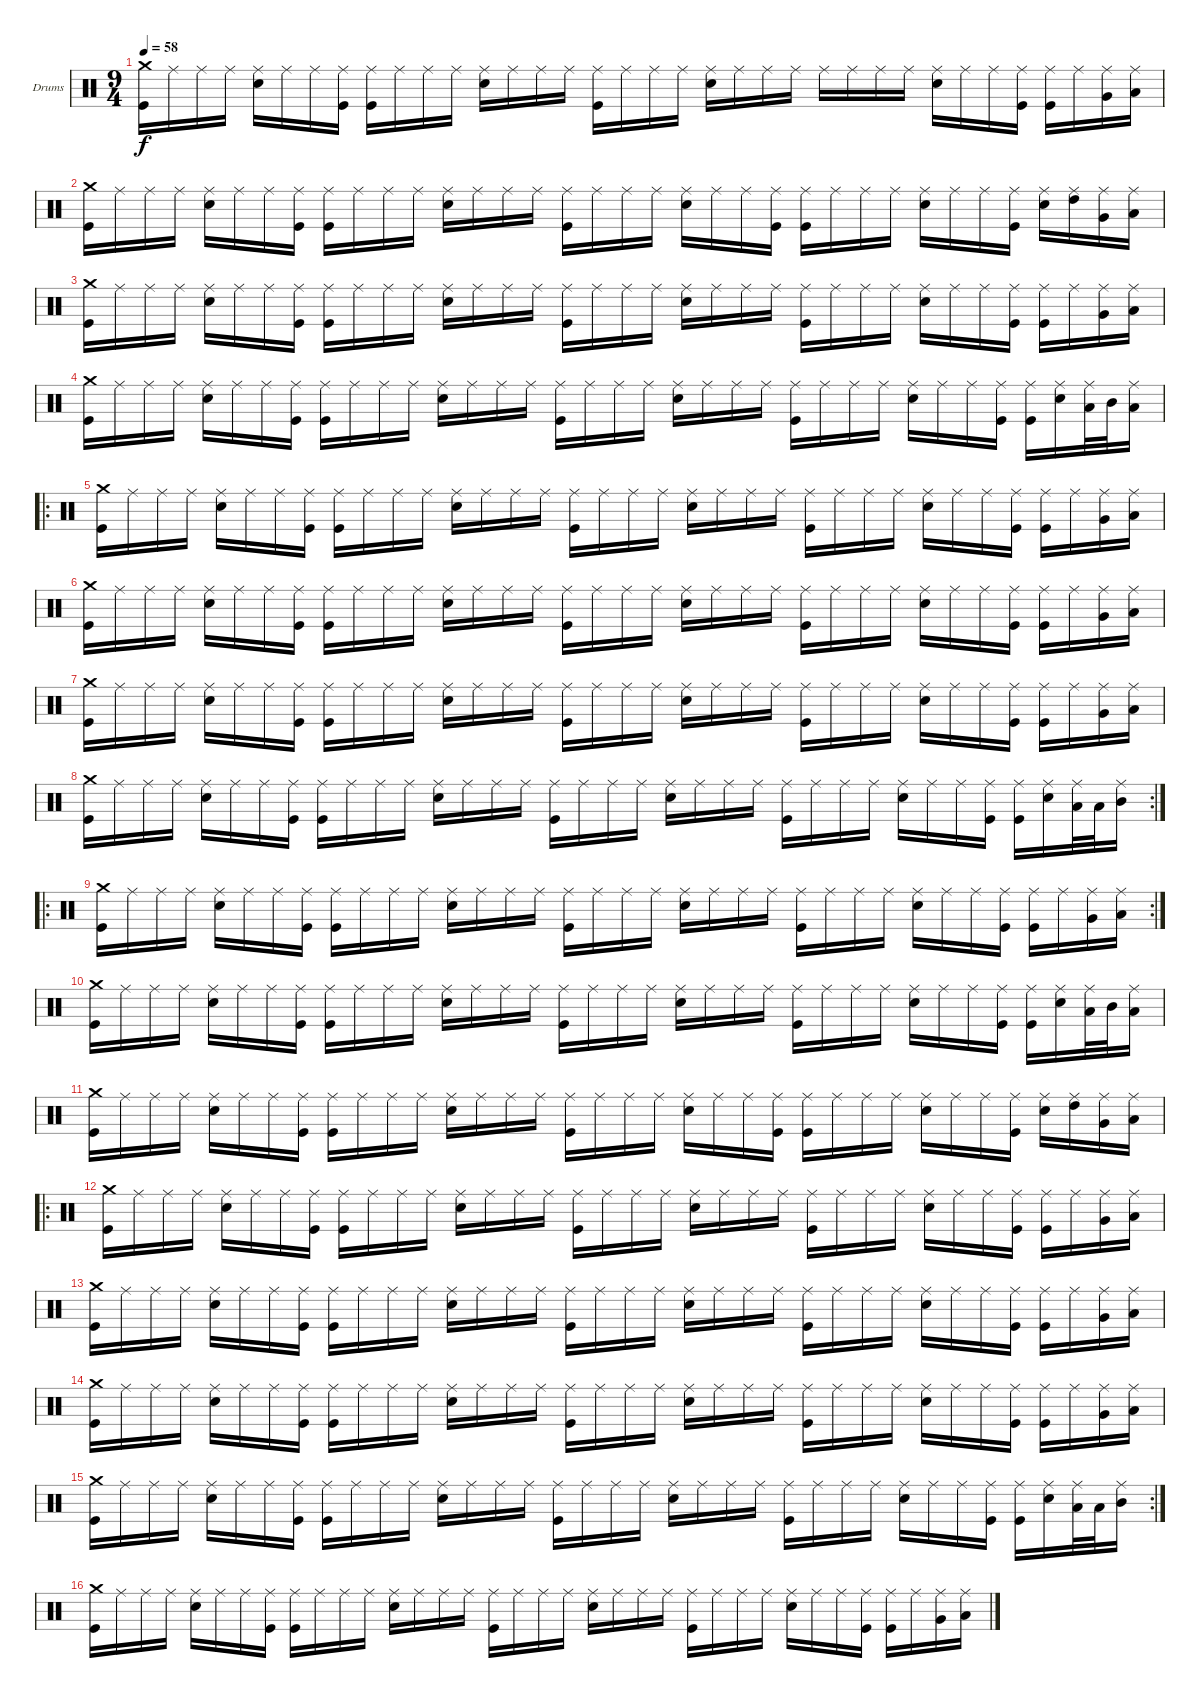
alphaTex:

\defaultSystemsLayout 4
\bracketExtendMode groupsimilarinstruments
\firstSystemTrackNameOrientation horizontal
\otherSystemsTrackNameOrientation horizontal
\track ("Drumkit" "Drums") {instrument percussion}
\staff {score}
\articulation defaults
\ts (9 4)
\tempo 58
\clef neutral
\scale
0.474178
\ks c
("Crash medium (hit)" "Kick (hit)").16{dy f} "Ride (middle)".16 "Ride (middle)".16 "Ride (middle)".16 ("Ride (middle)" "Snare (hit) 2").16 "Ride (middle)".16 "Ride (middle)".16 ("Ride (middle)" "Kick (hit)").16 ("Ride (middle)" "Kick (hit)").16 "Ride (middle)".16 "Ride (middle)".16 "Ride (middle)".16 ("Ride (middle)" "Snare (hit) 2").16 "Ride (middle)".16 "Ride (middle)".16 "Ride (middle)".16 ("Ride (middle)" "Kick (hit)").16 "Ride (middle)".16 "Ride (middle)".16 "Ride (middle)".16 ("Ride (middle)" "Snare (hit) 2").16 "Ride (middle)".16 "Ride (middle)".16 "Ride (middle)".16 "Ride (middle)".16 "Ride (middle)".16 "Ride (middle)".16 "Ride (middle)".16 ("Ride (middle)" "Snare (hit) 2").16 "Ride (middle)".16 "Ride (middle)".16 ("Ride (middle)" "Kick (hit)").16 ("Ride (middle)" "Kick (hit)").16 "Ride (middle)".16 ("Ride (middle)" "Very Low Tom (hit)").16 ("Ride (middle)" "Low Tom (hit)").16 |
\scale
0.262911 ("Crash medium (hit)" "Kick (hit)").16 "Ride (middle)".16 "Ride (middle)".16 "Ride (middle)".16 ("Ride (middle)" "Snare (hit) 2").16 "Ride (middle)".16 "Ride (middle)".16 ("Ride (middle)" "Kick (hit)").16 ("Ride (middle)" "Kick (hit)").16 "Ride (middle)".16 "Ride (middle)".16 "Ride (middle)".16 ("Ride (middle)" "Snare (hit) 2").16 "Ride (middle)".16 "Ride (middle)".16 "Ride (middle)".16 ("Ride (middle)" "Kick (hit)").16 "Ride (middle)".16 "Ride (middle)".16 "Ride (middle)".16 ("Ride (middle)" "Snare (hit) 2").16 "Ride (middle)".16 "Ride (middle)".16 ("Ride (middle)" "Kick (hit)").16 ("Ride (middle)" "Kick (hit)").16 "Ride (middle)".16 "Ride (middle)".16 "Ride (middle)".16 ("Ride (middle)" "Snare (hit) 2").16 "Ride (middle)".16 "Ride (middle)".16 ("Ride (middle)" "Kick (hit)").16 ("Ride (middle)" "Snare (hit) 2").16 ("Ride (middle)" "High Tom (hit)").16 ("Ride (middle)" "Very Low Tom (hit)").16 ("Ride (middle)" "Low Tom (hit)").16 |
\scale
0.262911 ("Crash medium (hit)" "Kick (hit)").16 "Ride (middle)".16 "Ride (middle)".16 "Ride (middle)".16 ("Ride (middle)" "Snare (hit) 2").16 "Ride (middle)".16 "Ride (middle)".16 ("Ride (middle)" "Kick (hit)").16 ("Ride (middle)" "Kick (hit)").16 "Ride (middle)".16 "Ride (middle)".16 "Ride (middle)".16 ("Ride (middle)" "Snare (hit) 2").16 "Ride (middle)".16 "Ride (middle)".16 "Ride (middle)".16 ("Ride (middle)" "Kick (hit)").16 "Ride (middle)".16 "Ride (middle)".16 "Ride (middle)".16 ("Ride (middle)" "Snare (hit) 2").16 "Ride (middle)".16 "Ride (middle)".16 "Ride (middle)".16 ("Ride (middle)" "Kick (hit)").16 "Ride (middle)".16 "Ride (middle)".16 "Ride (middle)".16 ("Ride (middle)" "Snare (hit) 2").16 "Ride (middle)".16 "Ride (middle)".16 ("Ride (middle)" "Kick (hit)").16 ("Ride (middle)" "Kick (hit)").16 "Ride (middle)".16 ("Ride (middle)" "Very Low Tom (hit)").16 ("Ride (middle)" "Low Tom (hit)").16 |
\scale
0.311111 ("Crash medium (hit)" "Kick (hit)").16 "Ride (middle)".16 "Ride (middle)".16 "Ride (middle)".16 ("Ride (middle)" "Snare (hit) 2").16 "Ride (middle)".16 "Ride (middle)".16 ("Ride (middle)" "Kick (hit)").16 ("Ride (middle)" "Kick (hit)").16 "Ride (middle)".16 "Ride (middle)".16 "Ride (middle)".16 ("Ride (middle)" "Snare (hit) 2").16 "Ride (middle)".16 "Ride (middle)".16 "Ride (middle)".16 ("Ride (middle)" "Kick (hit)").16 "Ride (middle)".16 "Ride (middle)".16 "Ride (middle)".16 ("Ride (middle)" "Snare (hit) 2").16 "Ride (middle)".16 "Ride (middle)".16 "Ride (middle)".16 ("Ride (middle)" "Kick (hit)").16 "Ride (middle)".16 "Ride (middle)".16 "Ride (middle)".16 ("Ride (middle)" "Snare (hit) 2").16 "Ride (middle)".16 "Ride (middle)".16 ("Ride (middle)" "Kick (hit)").16 ("Ride (middle)" "Kick (hit)").16 ("Ride (middle)" "Snare (hit) 2").16 ("Ride (middle)" "Low Tom (hit)").32 "Mid Tom (hit)".32 ("Ride (middle)" "Low Tom (hit)").16 |
\ro
\scale
0.377778 ("Crash medium (hit)" "Kick (hit)").16 "Ride (middle)".16 "Ride (middle)".16 "Ride (middle)".16 ("Ride (middle)" "Snare (hit) 2").16 "Ride (middle)".16 "Ride (middle)".16 ("Ride (middle)" "Kick (hit)").16 ("Ride (middle)" "Kick (hit)").16 "Ride (middle)".16 "Ride (middle)".16 "Ride (middle)".16 ("Ride (middle)" "Snare (hit) 2").16 "Ride (middle)".16 "Ride (middle)".16 "Ride (middle)".16 ("Ride (middle)" "Kick (hit)").16 "Ride (middle)".16 "Ride (middle)".16 "Ride (middle)".16 ("Ride (middle)" "Snare (hit) 2").16 "Ride (middle)".16 "Ride (middle)".16 "Ride (middle)".16 ("Ride (middle)" "Kick (hit)").16 "Ride (middle)".16 "Ride (middle)".16 "Ride (middle)".16 ("Ride (middle)" "Snare (hit) 2").16 "Ride (middle)".16 "Ride (middle)".16 ("Ride (middle)" "Kick (hit)").16 ("Ride (middle)" "Kick (hit)").16 "Ride (middle)".16 ("Ride (middle)" "Very Low Tom (hit)").16 ("Ride (middle)" "Low Tom (hit)").16 |
\scale
0.311111 ("Crash medium (hit)" "Kick (hit)").16 "Ride (middle)".16 "Ride (middle)".16 "Ride (middle)".16 ("Ride (middle)" "Snare (hit) 2").16 "Ride (middle)".16 "Ride (middle)".16 ("Ride (middle)" "Kick (hit)").16 ("Ride (middle)" "Kick (hit)").16 "Ride (middle)".16 "Ride (middle)".16 "Ride (middle)".16 ("Ride (middle)" "Snare (hit) 2").16 "Ride (middle)".16 "Ride (middle)".16 "Ride (middle)".16 ("Ride (middle)" "Kick (hit)").16 "Ride (middle)".16 "Ride (middle)".16 "Ride (middle)".16 ("Ride (middle)" "Snare (hit) 2").16 "Ride (middle)".16 "Ride (middle)".16 "Ride (middle)".16 ("Ride (middle)" "Kick (hit)").16 "Ride (middle)".16 "Ride (middle)".16 "Ride (middle)".16 ("Ride (middle)" "Snare (hit) 2").16 "Ride (middle)".16 "Ride (middle)".16 ("Ride (middle)" "Kick (hit)").16 ("Ride (middle)" "Kick (hit)").16 "Ride (middle)".16 ("Ride (middle)" "Very Low Tom (hit)").16 ("Ride (middle)" "Low Tom (hit)").16 |
\scale
0.291667 ("Crash medium (hit)" "Kick (hit)").16 "Ride (middle)".16 "Ride (middle)".16 "Ride (middle)".16 ("Ride (middle)" "Snare (hit) 2").16 "Ride (middle)".16 "Ride (middle)".16 ("Ride (middle)" "Kick (hit)").16 ("Ride (middle)" "Kick (hit)").16 "Ride (middle)".16 "Ride (middle)".16 "Ride (middle)".16 ("Ride (middle)" "Snare (hit) 2").16 "Ride (middle)".16 "Ride (middle)".16 "Ride (middle)".16 ("Ride (middle)" "Kick (hit)").16 "Ride (middle)".16 "Ride (middle)".16 "Ride (middle)".16 ("Ride (middle)" "Snare (hit) 2").16 "Ride (middle)".16 "Ride (middle)".16 "Ride (middle)".16 ("Ride (middle)" "Kick (hit)").16 "Ride (middle)".16 "Ride (middle)".16 "Ride (middle)".16 ("Ride (middle)" "Snare (hit) 2").16 "Ride (middle)".16 "Ride (middle)".16 ("Ride (middle)" "Kick (hit)").16 ("Ride (middle)" "Kick (hit)").16 "Ride (middle)".16 ("Ride (middle)" "Very Low Tom (hit)").16 ("Ride (middle)" "Low Tom (hit)").16 |
\rc 2
\scale
0.322917 ("Crash medium (hit)" "Kick (hit)").16 "Ride (middle)".16 "Ride (middle)".16 "Ride (middle)".16 ("Ride (middle)" "Snare (hit) 2").16 "Ride (middle)".16 "Ride (middle)".16 ("Ride (middle)" "Kick (hit)").16 ("Ride (middle)" "Kick (hit)").16 "Ride (middle)".16 "Ride (middle)".16 "Ride (middle)".16 ("Ride (middle)" "Snare (hit) 2").16 "Ride (middle)".16 "Ride (middle)".16 "Ride (middle)".16 ("Ride (middle)" "Kick (hit)").16 "Ride (middle)".16 "Ride (middle)".16 "Ride (middle)".16 ("Ride (middle)" "Snare (hit) 2").16 "Ride (middle)".16 "Ride (middle)".16 "Ride (middle)".16 ("Ride (middle)" "Kick (hit)").16 "Ride (middle)".16 "Ride (middle)".16 "Ride (middle)".16 ("Ride (middle)" "Snare (hit) 2").16 "Ride (middle)".16 "Ride (middle)".16 ("Ride (middle)" "Kick (hit)").16 ("Ride (middle)" "Kick (hit)").16 ("Ride (middle)" "Snare (hit) 2").16 ("Ride (middle)" "Low Tom (hit)").32 "Low Tom (hit)".32 ("Ride (middle)" "Mid Tom (hit)").16 |
\ro
\rc 2
\scale
0.385417 ("Crash medium (hit)" "Kick (hit)").16 "Ride (middle)".16 "Ride (middle)".16 "Ride (middle)".16 ("Ride (middle)" "Snare (hit) 2").16 "Ride (middle)".16 "Ride (middle)".16 ("Ride (middle)" "Kick (hit)").16 ("Ride (middle)" "Kick (hit)").16 "Ride (middle)".16 "Ride (middle)".16 "Ride (middle)".16 ("Ride (middle)" "Snare (hit) 2").16 "Ride (middle)".16 "Ride (middle)".16 "Ride (middle)".16 ("Ride (middle)" "Kick (hit)").16 "Ride (middle)".16 "Ride (middle)".16 "Ride (middle)".16 ("Ride (middle)" "Snare (hit) 2").16 "Ride (middle)".16 "Ride (middle)".16 "Ride (middle)".16 ("Ride (middle)" "Kick (hit)").16 "Ride (middle)".16 "Ride (middle)".16 "Ride (middle)".16 ("Ride (middle)" "Snare (hit) 2").16 "Ride (middle)".16 "Ride (middle)".16 ("Ride (middle)" "Kick (hit)").16 ("Ride (middle)" "Kick (hit)").16 "Ride (middle)".16 ("Ride (middle)" "Very Low Tom (hit)").16 ("Ride (middle)" "Low Tom (hit)").16 |
\scale
0.311111 ("Crash medium (hit)" "Kick (hit)").16 "Ride (middle)".16 "Ride (middle)".16 "Ride (middle)".16 ("Ride (middle)" "Snare (hit) 2").16 "Ride (middle)".16 "Ride (middle)".16 ("Ride (middle)" "Kick (hit)").16 ("Ride (middle)" "Kick (hit)").16 "Ride (middle)".16 "Ride (middle)".16 "Ride (middle)".16 ("Ride (middle)" "Snare (hit) 2").16 "Ride (middle)".16 "Ride (middle)".16 "Ride (middle)".16 ("Ride (middle)" "Kick (hit)").16 "Ride (middle)".16 "Ride (middle)".16 "Ride (middle)".16 ("Ride (middle)" "Snare (hit) 2").16 "Ride (middle)".16 "Ride (middle)".16 "Ride (middle)".16 ("Ride (middle)" "Kick (hit)").16 "Ride (middle)".16 "Ride (middle)".16 "Ride (middle)".16 ("Ride (middle)" "Snare (hit) 2").16 "Ride (middle)".16 "Ride (middle)".16 ("Ride (middle)" "Kick (hit)").16 ("Ride (middle)" "Kick (hit)").16 ("Ride (middle)" "Snare (hit) 2").16 ("Ride (middle)" "Low Tom (hit)").32 "Mid Tom (hit)".32 ("Ride (middle)" "Low Tom (hit)").16 |
\scale
0.311111 ("Crash medium (hit)" "Kick (hit)").16 "Ride (middle)".16 "Ride (middle)".16 "Ride (middle)".16 ("Ride (middle)" "Snare (hit) 2").16 "Ride (middle)".16 "Ride (middle)".16 ("Ride (middle)" "Kick (hit)").16 ("Ride (middle)" "Kick (hit)").16 "Ride (middle)".16 "Ride (middle)".16 "Ride (middle)".16 ("Ride (middle)" "Snare (hit) 2").16 "Ride (middle)".16 "Ride (middle)".16 "Ride (middle)".16 ("Ride (middle)" "Kick (hit)").16 "Ride (middle)".16 "Ride (middle)".16 "Ride (middle)".16 ("Ride (middle)" "Snare (hit) 2").16 "Ride (middle)".16 "Ride (middle)".16 ("Ride (middle)" "Kick (hit)").16 ("Ride (middle)" "Kick (hit)").16 "Ride (middle)".16 "Ride (middle)".16 "Ride (middle)".16 ("Ride (middle)" "Snare (hit) 2").16 "Ride (middle)".16 "Ride (middle)".16 ("Ride (middle)" "Kick (hit)").16 ("Ride (middle)" "Snare (hit) 2").16 ("Ride (middle)" "High Tom (hit)").16 ("Ride (middle)" "Very Low Tom (hit)").16 ("Ride (middle)" "Low Tom (hit)").16 |
\ro
\scale
0.377778 ("Crash medium (hit)" "Kick (hit)").16 "Ride (middle)".16 "Ride (middle)".16 "Ride (middle)".16 ("Ride (middle)" "Snare (hit) 2").16 "Ride (middle)".16 "Ride (middle)".16 ("Ride (middle)" "Kick (hit)").16 ("Ride (middle)" "Kick (hit)").16 "Ride (middle)".16 "Ride (middle)".16 "Ride (middle)".16 ("Ride (middle)" "Snare (hit) 2").16 "Ride (middle)".16 "Ride (middle)".16 "Ride (middle)".16 ("Ride (middle)" "Kick (hit)").16 "Ride (middle)".16 "Ride (middle)".16 "Ride (middle)".16 ("Ride (middle)" "Snare (hit) 2").16 "Ride (middle)".16 "Ride (middle)".16 "Ride (middle)".16 ("Ride (middle)" "Kick (hit)").16 "Ride (middle)".16 "Ride (middle)".16 "Ride (middle)".16 ("Ride (middle)" "Snare (hit) 2").16 "Ride (middle)".16 "Ride (middle)".16 ("Ride (middle)" "Kick (hit)").16 ("Ride (middle)" "Kick (hit)").16 "Ride (middle)".16 ("Ride (middle)" "Very Low Tom (hit)").16 ("Ride (middle)" "Low Tom (hit)").16 |
\scale
0.321839 ("Crash medium (hit)" "Kick (hit)").16 "Ride (middle)".16 "Ride (middle)".16 "Ride (middle)".16 ("Ride (middle)" "Snare (hit) 2").16 "Ride (middle)".16 "Ride (middle)".16 ("Ride (middle)" "Kick (hit)").16 ("Ride (middle)" "Kick (hit)").16 "Ride (middle)".16 "Ride (middle)".16 "Ride (middle)".16 ("Ride (middle)" "Snare (hit) 2").16 "Ride (middle)".16 "Ride (middle)".16 "Ride (middle)".16 ("Ride (middle)" "Kick (hit)").16 "Ride (middle)".16 "Ride (middle)".16 "Ride (middle)".16 ("Ride (middle)" "Snare (hit) 2").16 "Ride (middle)".16 "Ride (middle)".16 "Ride (middle)".16 ("Ride (middle)" "Kick (hit)").16 "Ride (middle)".16 "Ride (middle)".16 "Ride (middle)".16 ("Ride (middle)" "Snare (hit) 2").16 "Ride (middle)".16 "Ride (middle)".16 ("Ride (middle)" "Kick (hit)").16 ("Ride (middle)" "Kick (hit)").16 "Ride (middle)".16 ("Ride (middle)" "Very Low Tom (hit)").16 ("Ride (middle)" "Low Tom (hit)").16 |
\scale
0.321839 ("Crash medium (hit)" "Kick (hit)").16 "Ride (middle)".16 "Ride (middle)".16 "Ride (middle)".16 ("Ride (middle)" "Snare (hit) 2").16 "Ride (middle)".16 "Ride (middle)".16 ("Ride (middle)" "Kick (hit)").16 ("Ride (middle)" "Kick (hit)").16 "Ride (middle)".16 "Ride (middle)".16 "Ride (middle)".16 ("Ride (middle)" "Snare (hit) 2").16 "Ride (middle)".16 "Ride (middle)".16 "Ride (middle)".16 ("Ride (middle)" "Kick (hit)").16 "Ride (middle)".16 "Ride (middle)".16 "Ride (middle)".16 ("Ride (middle)" "Snare (hit) 2").16 "Ride (middle)".16 "Ride (middle)".16 "Ride (middle)".16 ("Ride (middle)" "Kick (hit)").16 "Ride (middle)".16 "Ride (middle)".16 "Ride (middle)".16 ("Ride (middle)" "Snare (hit) 2").16 "Ride (middle)".16 "Ride (middle)".16 ("Ride (middle)" "Kick (hit)").16 ("Ride (middle)" "Kick (hit)").16 "Ride (middle)".16 ("Ride (middle)" "Very Low Tom (hit)").16 ("Ride (middle)" "Low Tom (hit)").16 |
\rc 2
\scale
0.356322 ("Crash medium (hit)" "Kick (hit)").16 "Ride (middle)".16 "Ride (middle)".16 "Ride (middle)".16 ("Ride (middle)" "Snare (hit) 2").16 "Ride (middle)".16 "Ride (middle)".16 ("Ride (middle)" "Kick (hit)").16 ("Ride (middle)" "Kick (hit)").16 "Ride (middle)".16 "Ride (middle)".16 "Ride (middle)".16 ("Ride (middle)" "Snare (hit) 2").16 "Ride (middle)".16 "Ride (middle)".16 "Ride (middle)".16 ("Ride (middle)" "Kick (hit)").16 "Ride (middle)".16 "Ride (middle)".16 "Ride (middle)".16 ("Ride (middle)" "Snare (hit) 2").16 "Ride (middle)".16 "Ride (middle)".16 "Ride (middle)".16 ("Ride (middle)" "Kick (hit)").16 "Ride (middle)".16 "Ride (middle)".16 "Ride (middle)".16 ("Ride (middle)" "Snare (hit) 2").16 "Ride (middle)".16 "Ride (middle)".16 ("Ride (middle)" "Kick (hit)").16 ("Ride (middle)" "Kick (hit)").16 ("Ride (middle)" "Snare (hit) 2").16 ("Ride (middle)" "Low Tom (hit)").32 "Low Tom (hit)".32 ("Ride (middle)" "Mid Tom (hit)").16 |
\scale
0.333333 ("Crash medium (hit)" "Kick (hit)").16 "Ride (middle)".16 "Ride (middle)".16 "Ride (middle)".16 ("Ride (middle)" "Snare (hit) 2").16 "Ride (middle)".16 "Ride (middle)".16 ("Ride (middle)" "Kick (hit)").16 ("Ride (middle)" "Kick (hit)").16 "Ride (middle)".16 "Ride (middle)".16 "Ride (middle)".16 ("Ride (middle)" "Snare (hit) 2").16 "Ride (middle)".16 "Ride (middle)".16 "Ride (middle)".16 ("Ride (middle)" "Kick (hit)").16 "Ride (middle)".16 "Ride (middle)".16 "Ride (middle)".16 ("Ride (middle)" "Snare (hit) 2").16 "Ride (middle)".16 "Ride (middle)".16 "Ride (middle)".16 ("Ride (middle)" "Kick (hit)").16 "Ride (middle)".16 "Ride (middle)".16 "Ride (middle)".16 ("Ride (middle)" "Snare (hit) 2").16 "Ride (middle)".16 "Ride (middle)".16 ("Ride (middle)" "Kick (hit)").16 ("Ride (middle)" "Kick (hit)").16 "Ride (middle)".16 ("Ride (middle)" "Very Low Tom (hit)").16 ("Ride (middle)" "Low Tom (hit)").16
